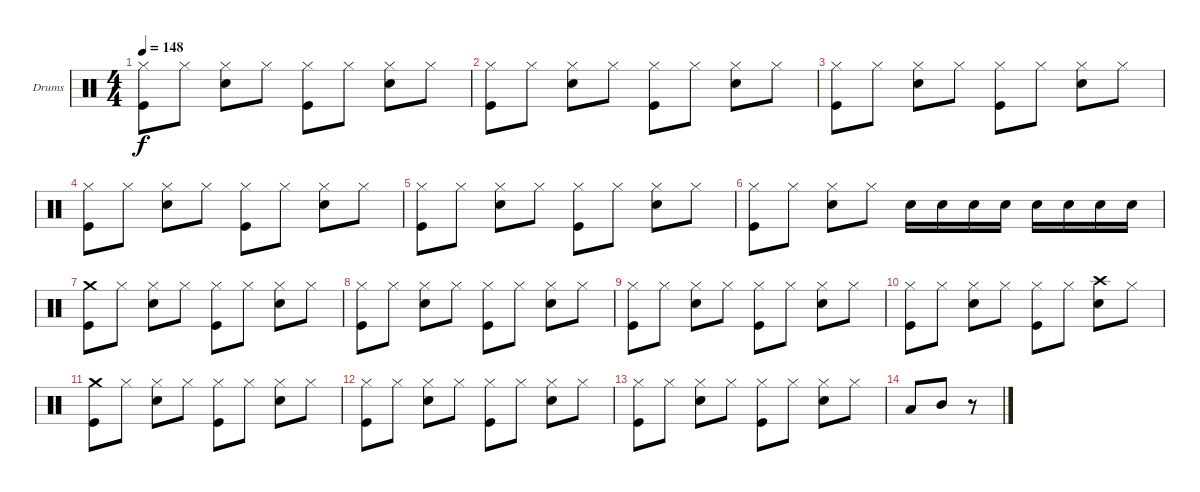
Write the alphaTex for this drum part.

\defaultSystemsLayout 4
\bracketExtendMode groupsimilarinstruments
\firstSystemTrackNameOrientation horizontal
\otherSystemsTrackNameOrientation horizontal
\track ("Нюта" "Drums") {instrument percussion}
\staff {score}
\articulation defaults
\ts (4 4)
\tempo 148
\clef neutral
\ks c
("Hi-Hat (closed)" "Kick (hit)").8{dy f} "Hi-Hat (closed)".8 ("Hi-Hat (closed)" "Snare (hit) 2").8 "Hi-Hat (closed)".8 ("Hi-Hat (closed)" "Kick (hit)").8 "Hi-Hat (closed)".8 ("Hi-Hat (closed)" "Snare (hit) 2").8 "Hi-Hat (closed)".8 |
("Hi-Hat (closed)" "Kick (hit)").8 "Hi-Hat (closed)".8 ("Hi-Hat (closed)" "Snare (hit) 2").8 "Hi-Hat (closed)".8 ("Hi-Hat (closed)" "Kick (hit)").8 "Hi-Hat (closed)".8 ("Hi-Hat (closed)" "Snare (hit) 2").8 "Hi-Hat (closed)".8 |
("Hi-Hat (closed)" "Kick (hit)").8 "Hi-Hat (closed)".8 ("Hi-Hat (closed)" "Snare (hit) 2").8 "Hi-Hat (closed)".8 ("Hi-Hat (closed)" "Kick (hit)").8 "Hi-Hat (closed)".8 ("Hi-Hat (closed)" "Snare (hit) 2").8 "Hi-Hat (closed)".8 |
("Hi-Hat (closed)" "Kick (hit)").8 "Hi-Hat (closed)".8 ("Hi-Hat (closed)" "Snare (hit) 2").8 "Hi-Hat (closed)".8 ("Hi-Hat (closed)" "Kick (hit)").8 "Hi-Hat (closed)".8 ("Hi-Hat (closed)" "Snare (hit) 2").8 "Hi-Hat (closed)".8 |
("Hi-Hat (closed)" "Kick (hit)").8 "Hi-Hat (closed)".8 ("Hi-Hat (closed)" "Snare (hit) 2").8 "Hi-Hat (closed)".8 ("Hi-Hat (closed)" "Kick (hit)").8 "Hi-Hat (closed)".8 ("Hi-Hat (closed)" "Snare (hit) 2").8 "Hi-Hat (closed)".8 |
("Hi-Hat (closed)" "Kick (hit)").8 "Hi-Hat (closed)".8 ("Hi-Hat (closed)" "Snare (hit) 2").8 "Hi-Hat (closed)".8 "Snare (hit) 2".16 "Snare (hit) 2".16 "Snare (hit) 2".16 "Snare (hit) 2".16 "Snare (hit) 2".16 "Snare (hit) 2".16 "Snare (hit) 2".16 "Snare (hit) 2".16 |
("Crash medium (hit)" "Kick (hit)").8 "Hi-Hat (closed)".8 ("Hi-Hat (closed)" "Snare (hit) 2").8 "Hi-Hat (closed)".8 ("Hi-Hat (closed)" "Kick (hit)").8 "Hi-Hat (closed)".8 ("Hi-Hat (closed)" "Snare (hit) 2").8 "Hi-Hat (closed)".8 |
\scale
0.333333 ("Hi-Hat (closed)" "Kick (hit)").8 "Hi-Hat (closed)".8 ("Hi-Hat (closed)" "Snare (hit) 2").8 "Hi-Hat (closed)".8 ("Hi-Hat (closed)" "Kick (hit)").8 "Hi-Hat (closed)".8 ("Hi-Hat (closed)" "Snare (hit) 2").8 "Hi-Hat (closed)".8 |
\scale
0.333333 ("Hi-Hat (closed)" "Kick (hit)").8 "Hi-Hat (closed)".8 ("Hi-Hat (closed)" "Snare (hit) 2").8 "Hi-Hat (closed)".8 ("Hi-Hat (closed)" "Kick (hit)").8 "Hi-Hat (closed)".8 ("Hi-Hat (closed)" "Snare (hit) 2").8 "Hi-Hat (closed)".8 |
\scale
0.333333 ("Hi-Hat (closed)" "Kick (hit)").8 "Hi-Hat (closed)".8 ("Hi-Hat (closed)" "Snare (hit) 2").8 "Hi-Hat (closed)".8 ("Hi-Hat (closed)" "Kick (hit)").8 "Hi-Hat (closed)".8 ("Crash high (hit)" "Snare (hit) 2").8 "Hi-Hat (closed)".8 |
\scale
0.333333 ("Crash medium (hit)" "Kick (hit)").8 "Hi-Hat (closed)".8 ("Hi-Hat (closed)" "Snare (hit) 2").8 "Hi-Hat (closed)".8 ("Hi-Hat (closed)" "Kick (hit)").8 "Hi-Hat (closed)".8 ("Hi-Hat (closed)" "Snare (hit) 2").8 "Hi-Hat (closed)".8 |
\scale
0.333333 ("Hi-Hat (closed)" "Kick (hit)").8 "Hi-Hat (closed)".8 ("Hi-Hat (closed)" "Snare (hit) 2").8 "Hi-Hat (closed)".8 ("Hi-Hat (closed)" "Kick (hit)").8 "Hi-Hat (closed)".8 ("Hi-Hat (closed)" "Snare (hit) 2").8 "Hi-Hat (closed)".8 |
("Hi-Hat (closed)" "Kick (hit)").8 "Hi-Hat (closed)".8 ("Hi-Hat (closed)" "Snare (hit) 2").8 "Hi-Hat (closed)".8 ("Hi-Hat (closed)" "Kick (hit)").8 "Hi-Hat (closed)".8 ("Hi-Hat (closed)" "Snare (hit) 2").8 "Hi-Hat (closed)".8 |
"Low Tom (hit)".8 "Mid Tom (hit)".8 r.8
